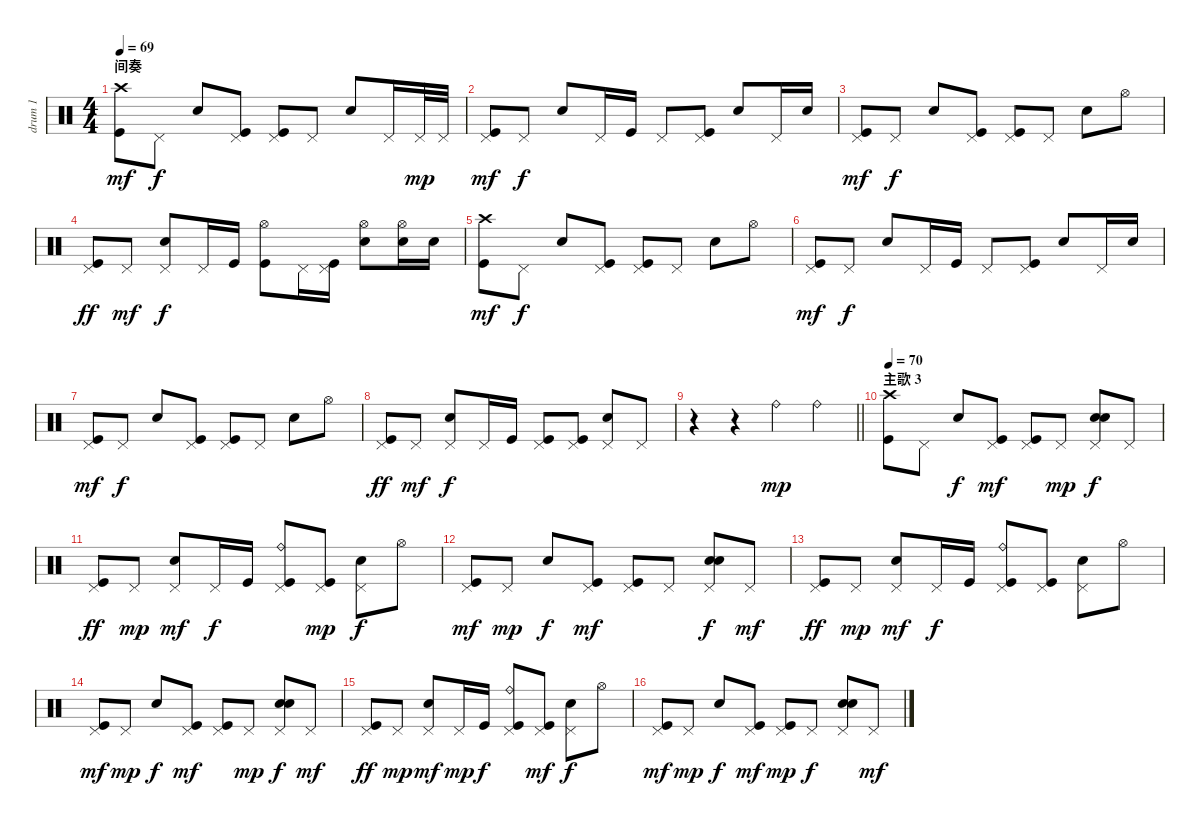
\track ("drum 1" "drum 1") {instrument percussion}
\staff {score}
\articulation defaults
\ts (4 4)
\section ("" "间奏")
\tempo 69
\clef neutral
\ks c
("Crash high (hit)" "Kick (hit)").8{dy mf} "Pedal Hi-Hat (hit)".8{dy f} "Snare (hit) 2".8 ("Pedal Hi-Hat (hit)" "Kick (hit)").8 ("Pedal Hi-Hat (hit)" "Kick (hit)").8 "Pedal Hi-Hat (hit)".8 "Snare (hit) 2".8 "Pedal Hi-Hat (hit)".16 "Pedal Hi-Hat (hit)".32{dy mp} "Pedal Hi-Hat (hit)".32 |
("Pedal Hi-Hat (hit)" "Kick (hit)").8{dy mf} "Pedal Hi-Hat (hit)".8{dy f} "Snare (hit) 2".8 "Pedal Hi-Hat (hit)".16 "Kick (hit)".16 "Pedal Hi-Hat (hit)".8 ("Pedal Hi-Hat (hit)" "Kick (hit)").8 "Snare (hit) 2".8 "Pedal Hi-Hat (hit)".16 "Snare (hit) 2".16 |
("Pedal Hi-Hat (hit)" "Kick (hit)").8{dy mf} "Pedal Hi-Hat (hit)".8{dy f} "Snare (hit) 2".8 ("Pedal Hi-Hat (hit)" "Kick (hit)").8 ("Pedal Hi-Hat (hit)" "Kick (hit)").8 "Pedal Hi-Hat (hit)".8 "Snare (hit) 2".8 "Hi-Hat (open)".8 |
("Pedal Hi-Hat (hit)" "Kick (hit)").8{dy ff} "Pedal Hi-Hat (hit)".8{dy mf} ("Pedal Hi-Hat (hit)" "Snare (hit) 2").8{dy f} "Pedal Hi-Hat (hit)".16 "Kick (hit)".16 ("Hi-Hat (open)" "Kick (hit)").8 "Pedal Hi-Hat (hit)".16 ("Pedal Hi-Hat (hit)" "Kick (hit)").16 ("Hi-Hat (open)" "Snare (hit) 2").8 ("Hi-Hat (open)" "Snare (hit) 2").16 "Snare (hit) 2".16 |
("Crash high (hit)" "Kick (hit)").8{dy mf} "Pedal Hi-Hat (hit)".8{dy f} "Snare (hit) 2".8 ("Pedal Hi-Hat (hit)" "Kick (hit)").8 ("Pedal Hi-Hat (hit)" "Kick (hit)").8 "Pedal Hi-Hat (hit)".8 "Snare (hit) 2".8 "Hi-Hat (open)".8 |
("Pedal Hi-Hat (hit)" "Kick (hit)").8{dy mf} "Pedal Hi-Hat (hit)".8{dy f} "Snare (hit) 2".8 "Pedal Hi-Hat (hit)".16 "Kick (hit)".16 "Pedal Hi-Hat (hit)".8 ("Pedal Hi-Hat (hit)" "Kick (hit)").8 "Snare (hit) 2".8 "Pedal Hi-Hat (hit)".16 "Snare (hit) 2".16 |
("Pedal Hi-Hat (hit)" "Kick (hit)").8{dy mf} "Pedal Hi-Hat (hit)".8{dy f} "Snare (hit) 2".8 ("Pedal Hi-Hat (hit)" "Kick (hit)").8 ("Pedal Hi-Hat (hit)" "Kick (hit)").8 "Pedal Hi-Hat (hit)".8 "Snare (hit) 2".8 "Hi-Hat (open)".8 |
("Pedal Hi-Hat (hit)" "Kick (hit)").8{dy ff} "Pedal Hi-Hat (hit)".8{dy mf} ("Pedal Hi-Hat (hit)" "Snare (hit) 2").8{dy f} "Pedal Hi-Hat (hit)".16 "Kick (hit)".16 ("Pedal Hi-Hat (hit)" "Kick (hit)").8 ("Pedal Hi-Hat (hit)" "Kick (hit)").8 ("Pedal Hi-Hat (hit)" "Snare (hit) 2").8 "Pedal Hi-Hat (hit)".8 |
\barLineRight lightlight
r.4 r.4 "Ride (bell)".4{dy mp} "Ride (bell)".4 |
\section ("" "主歌 3")
\tempo 70
("Crash high (hit)" "Kick (hit)").8 "Pedal Hi-Hat (hit)".8 "Snare (hit) 2".8{dy f} ("Pedal Hi-Hat (hit)" "Kick (hit)").8{dy mf} ("Pedal Hi-Hat (hit)" "Kick (hit)").8 "Pedal Hi-Hat (hit)".8{dy mp} ("Metronome (bell)" "Pedal Hi-Hat (hit)" "Snare (hit) 2").8{dy f} "Pedal Hi-Hat (hit)".8 |
("Pedal Hi-Hat (hit)" "Kick (hit)").8{dy ff} "Pedal Hi-Hat (hit)".8{dy mp} ("Pedal Hi-Hat (hit)" "Snare (hit) 2").8{dy mf} "Pedal Hi-Hat (hit)".16{dy f} "Kick (hit)".16 ("Ride (bell)" "Pedal Hi-Hat (hit)" "Kick (hit)").8 ("Pedal Hi-Hat (hit)" "Kick (hit)").8{dy mp} ("Pedal Hi-Hat (hit)" "Snare (hit) 2").8{dy f} "Hi-Hat (open)".8 |
("Pedal Hi-Hat (hit)" "Kick (hit)").8{dy mf} "Pedal Hi-Hat (hit)".8{dy mp} "Snare (hit) 2".8{dy f} ("Pedal Hi-Hat (hit)" "Kick (hit)").8{dy mf} ("Pedal Hi-Hat (hit)" "Kick (hit)").8 "Pedal Hi-Hat (hit)".8 ("Metronome (bell)" "Pedal Hi-Hat (hit)" "Snare (hit) 2").8{dy f} "Pedal Hi-Hat (hit)".8{dy mf} |
("Pedal Hi-Hat (hit)" "Kick (hit)").8{dy ff} "Pedal Hi-Hat (hit)".8{dy mp} ("Pedal Hi-Hat (hit)" "Snare (hit) 2").8{dy mf} "Pedal Hi-Hat (hit)".16{dy f} "Kick (hit)".16 ("Ride (bell)" "Pedal Hi-Hat (hit)" "Kick (hit)").8 ("Pedal Hi-Hat (hit)" "Kick (hit)").8 ("Pedal Hi-Hat (hit)" "Snare (hit) 2").8 "Hi-Hat (open)".8 |
("Pedal Hi-Hat (hit)" "Kick (hit)").8{dy mf} "Pedal Hi-Hat (hit)".8{dy mp} "Snare (hit) 2".8{dy f} ("Pedal Hi-Hat (hit)" "Kick (hit)").8{dy mf} ("Pedal Hi-Hat (hit)" "Kick (hit)").8 "Pedal Hi-Hat (hit)".8{dy mp} ("Metronome (bell)" "Pedal Hi-Hat (hit)" "Snare (hit) 2").8{dy f} "Pedal Hi-Hat (hit)".8{dy mf} |
("Pedal Hi-Hat (hit)" "Kick (hit)").8{dy ff} "Pedal Hi-Hat (hit)".8{dy mp} ("Pedal Hi-Hat (hit)" "Snare (hit) 2").8{dy mf} "Pedal Hi-Hat (hit)".16{dy mp} "Kick (hit)".16{dy f} ("Ride (bell)" "Pedal Hi-Hat (hit)" "Kick (hit)").8 ("Pedal Hi-Hat (hit)" "Kick (hit)").8{dy mf} ("Pedal Hi-Hat (hit)" "Snare (hit) 2").8{dy f} "Hi-Hat (open)".8 |
("Pedal Hi-Hat (hit)" "Kick (hit)").8{dy mf} "Pedal Hi-Hat (hit)".8{dy mp} "Snare (hit) 2".8{dy f} ("Pedal Hi-Hat (hit)" "Kick (hit)").8{dy mf} ("Pedal Hi-Hat (hit)" "Kick (hit)").8{dy mp} "Pedal Hi-Hat (hit)".8{dy f} ("Metronome (bell)" "Pedal Hi-Hat (hit)" "Snare (hit) 2").8 "Pedal Hi-Hat (hit)".8{dy mf}
